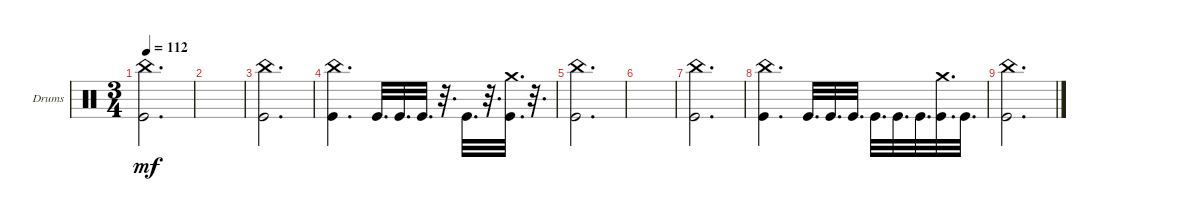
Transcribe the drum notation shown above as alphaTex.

\bracketExtendMode groupsimilarinstruments
\firstSystemTrackNameOrientation horizontal
\otherSystemsTrackNameOrientation horizontal
\track ("Drumkit" "Drums") {instrument percussion}
\staff {score}
\articulation defaults
\ts (3 4)
\tempo 112
\clef neutral
\ks c
("Kick (hit)" "China (hit)").2{d dy mf} |
|
("Kick (hit)" "China (hit)").2{d} |
("Kick (hit)" "China (hit)").4{d} "Kick (hit)".32{d} "Kick (hit)".32{d} "Kick (hit)".32{d} r.32{d} "Kick (hit)".32{d} r.32{d} ("Kick (hit)" "Crash medium (hit)").32{d} r.32{d} |
("Kick (hit)" "China (hit)").2{d} |
|
("Kick (hit)" "China (hit)").2{d} |
("Kick (hit)" "China (hit)").4{d} "Kick (hit)".32{d} "Kick (hit)".32{d} "Kick (hit)".32{d} "Kick (hit)".32{d} "Kick (hit)".32{d} "Kick (hit)".32{d} ("Kick (hit)" "Crash medium (hit)").32{d} "Kick (hit)".32{d} |
("Kick (hit)" "China (hit)").2{d}
